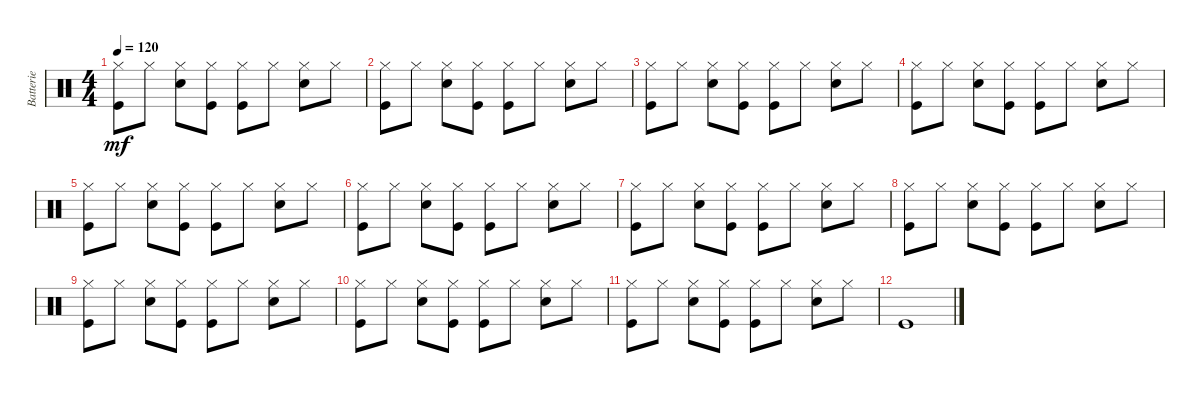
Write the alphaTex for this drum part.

\track ("Batterie" "Batterie") {instrument percussion}
\staff {score}
\articulation defaults
\ts (4 4)
\tempo 120
\clef neutral
\ks c
("Hi-Hat (closed)" "Kick (hit)").8{dy mf} "Hi-Hat (closed)".8 ("Hi-Hat (closed)" "Snare (hit) 2").8 ("Hi-Hat (closed)" "Kick (hit)").8 ("Hi-Hat (closed)" "Kick (hit)").8 "Hi-Hat (closed)".8 ("Hi-Hat (closed)" "Snare (hit) 2").8 "Hi-Hat (closed)".8 |
("Hi-Hat (closed)" "Kick (hit)").8 "Hi-Hat (closed)".8 ("Hi-Hat (closed)" "Snare (hit) 2").8 ("Hi-Hat (closed)" "Kick (hit)").8 ("Hi-Hat (closed)" "Kick (hit)").8 "Hi-Hat (closed)".8 ("Hi-Hat (closed)" "Snare (hit) 2").8 "Hi-Hat (closed)".8 |
("Hi-Hat (closed)" "Kick (hit)").8 "Hi-Hat (closed)".8 ("Hi-Hat (closed)" "Snare (hit) 2").8 ("Hi-Hat (closed)" "Kick (hit)").8 ("Hi-Hat (closed)" "Kick (hit)").8 "Hi-Hat (closed)".8 ("Hi-Hat (closed)" "Snare (hit) 2").8 "Hi-Hat (closed)".8 |
("Hi-Hat (closed)" "Kick (hit)").8 "Hi-Hat (closed)".8 ("Hi-Hat (closed)" "Snare (hit) 2").8 ("Hi-Hat (closed)" "Kick (hit)").8 ("Hi-Hat (closed)" "Kick (hit)").8 "Hi-Hat (closed)".8 ("Hi-Hat (closed)" "Snare (hit) 2").8 "Hi-Hat (closed)".8 |
("Hi-Hat (closed)" "Kick (hit)").8 "Hi-Hat (closed)".8 ("Hi-Hat (closed)" "Snare (hit) 2").8 ("Hi-Hat (closed)" "Kick (hit)").8 ("Hi-Hat (closed)" "Kick (hit)").8 "Hi-Hat (closed)".8 ("Hi-Hat (closed)" "Snare (hit) 2").8 "Hi-Hat (closed)".8 |
("Hi-Hat (closed)" "Kick (hit)").8 "Hi-Hat (closed)".8 ("Hi-Hat (closed)" "Snare (hit) 2").8 ("Hi-Hat (closed)" "Kick (hit)").8 ("Hi-Hat (closed)" "Kick (hit)").8 "Hi-Hat (closed)".8 ("Hi-Hat (closed)" "Snare (hit) 2").8 "Hi-Hat (closed)".8 |
("Hi-Hat (closed)" "Kick (hit)").8 "Hi-Hat (closed)".8 ("Hi-Hat (closed)" "Snare (hit) 2").8 ("Hi-Hat (closed)" "Kick (hit)").8 ("Hi-Hat (closed)" "Kick (hit)").8 "Hi-Hat (closed)".8 ("Hi-Hat (closed)" "Snare (hit) 2").8 "Hi-Hat (closed)".8 |
("Hi-Hat (closed)" "Kick (hit)").8 "Hi-Hat (closed)".8 ("Hi-Hat (closed)" "Snare (hit) 2").8 ("Hi-Hat (closed)" "Kick (hit)").8 ("Hi-Hat (closed)" "Kick (hit)").8 "Hi-Hat (closed)".8 ("Hi-Hat (closed)" "Snare (hit) 2").8 "Hi-Hat (closed)".8 |
("Hi-Hat (closed)" "Kick (hit)").8 "Hi-Hat (closed)".8 ("Hi-Hat (closed)" "Snare (hit) 2").8 ("Hi-Hat (closed)" "Kick (hit)").8 ("Hi-Hat (closed)" "Kick (hit)").8 "Hi-Hat (closed)".8 ("Hi-Hat (closed)" "Snare (hit) 2").8 "Hi-Hat (closed)".8 |
("Hi-Hat (closed)" "Kick (hit)").8 "Hi-Hat (closed)".8 ("Hi-Hat (closed)" "Snare (hit) 2").8 ("Hi-Hat (closed)" "Kick (hit)").8 ("Hi-Hat (closed)" "Kick (hit)").8 "Hi-Hat (closed)".8 ("Hi-Hat (closed)" "Snare (hit) 2").8 "Hi-Hat (closed)".8 |
("Hi-Hat (closed)" "Kick (hit)").8 "Hi-Hat (closed)".8 ("Hi-Hat (closed)" "Snare (hit) 2").8 ("Hi-Hat (closed)" "Kick (hit)").8 ("Hi-Hat (closed)" "Kick (hit)").8 "Hi-Hat (closed)".8 ("Hi-Hat (closed)" "Snare (hit) 2").8 "Hi-Hat (closed)".8 |
"Kick (hit)".1
